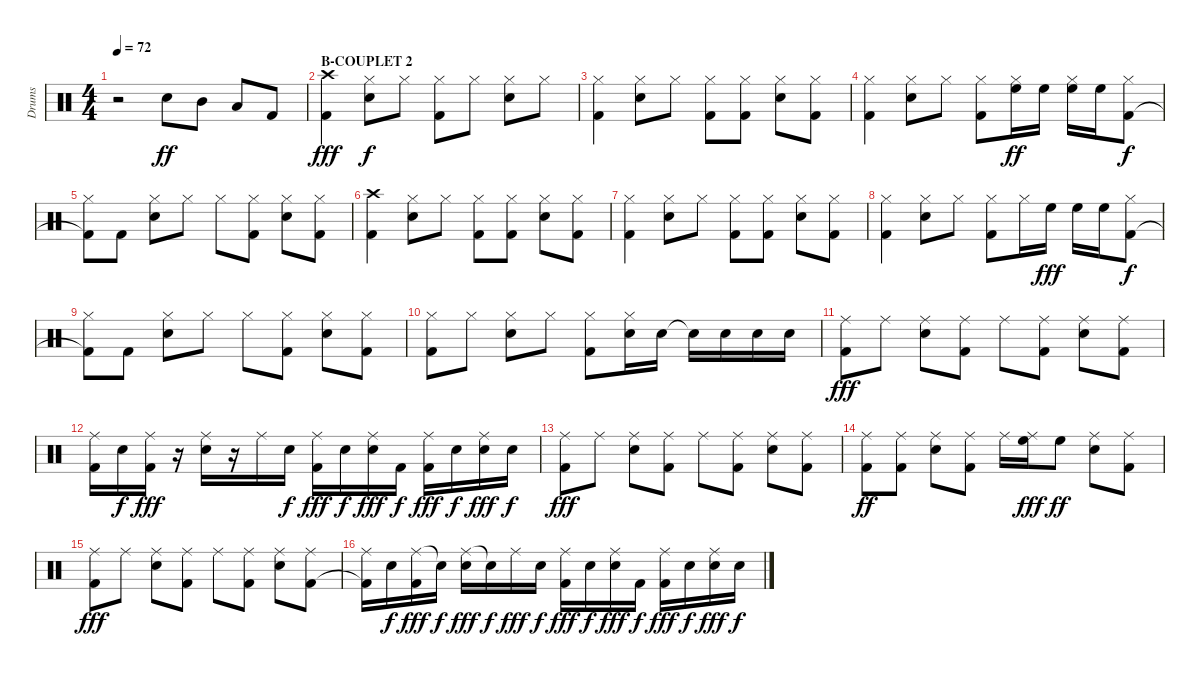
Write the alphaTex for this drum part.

\track ("Drums" "Drums") {instrument percussion}
\staff {score}
\articulation defaults
\ts (4 4)
\tempo 72
\clef neutral
\ks c
r.2{dy ff} "Snare (hit) 2".8 "Mid Tom (hit)".8 "Low Tom (hit)".8 "Kick (hit) 2".8 |
\section ("" "B-COUPLET 2")
("Crash high (hit)" "Kick (hit) 2").4{dy fff} ("Hi-Hat (closed)" "Snare (hit) 2").8{dy f} "Hi-Hat (closed)".8 ("Hi-Hat (closed)" "Kick (hit) 2").8 "Hi-Hat (closed)".8 ("Hi-Hat (closed)" "Snare (hit) 2").8 "Hi-Hat (closed)".8 |
("Hi-Hat (closed)" "Kick (hit) 2").4 ("Hi-Hat (closed)" "Snare (hit) 2").8 "Hi-Hat (closed)".8 ("Hi-Hat (closed)" "Kick (hit) 2").8 ("Hi-Hat (closed)" "Kick (hit) 2").8 ("Hi-Hat (closed)" "Snare (hit) 2").8 ("Hi-Hat (closed)" "Kick (hit) 2").8 |
("Hi-Hat (closed)" "Kick (hit) 2").4 ("Hi-Hat (closed)" "Snare (hit) 2").8 "Hi-Hat (closed)".8 ("Hi-Hat (closed)" "Kick (hit) 2").8 ("Hi-Hat (closed)" "High Floor Tom (hit)").16{dy ff} "High Floor Tom (hit)".16 ("Hi-Hat (closed)" "High Floor Tom (hit)").16 "High Floor Tom (hit)".16 ("Hi-Hat (closed)" "Kick (hit) 2").8{dy f} |
("Hi-Hat (closed)" "Kick (hit) 2"{t}).8 "Kick (hit) 2".8 ("Hi-Hat (closed)" "Snare (hit) 2").8 "Hi-Hat (closed)".8 "Hi-Hat (closed)".8 ("Hi-Hat (closed)" "Kick (hit) 2").8 ("Hi-Hat (closed)" "Snare (hit) 2").8 ("Hi-Hat (closed)" "Kick (hit) 2").8 |
("Crash high (hit)" "Kick (hit) 2").4 ("Hi-Hat (closed)" "Snare (hit) 2").8 "Hi-Hat (closed)".8 ("Hi-Hat (closed)" "Kick (hit) 2").8 ("Hi-Hat (closed)" "Kick (hit) 2").8 ("Hi-Hat (closed)" "Snare (hit) 2").8 ("Hi-Hat (closed)" "Kick (hit) 2").8 |
("Hi-Hat (closed)" "Kick (hit) 2").4 ("Hi-Hat (closed)" "Snare (hit) 2").8 "Hi-Hat (closed)".8 ("Hi-Hat (closed)" "Kick (hit) 2").8 ("Hi-Hat (closed)" "Kick (hit) 2").8 ("Hi-Hat (closed)" "Snare (hit) 2").8 ("Hi-Hat (closed)" "Kick (hit) 2").8 |
("Hi-Hat (closed)" "Kick (hit) 2").4 ("Hi-Hat (closed)" "Snare (hit) 2").8 "Hi-Hat (closed)".8 ("Hi-Hat (closed)" "Kick (hit) 2").8 "Hi-Hat (closed)".16 "High Floor Tom (hit)".16{dy fff} "High Floor Tom (hit)".16 "High Floor Tom (hit)".16 ("Hi-Hat (closed)" "Kick (hit) 2").8{dy f} |
("Hi-Hat (closed)" "Kick (hit) 2"{t}).8 "Kick (hit) 2".8 ("Hi-Hat (closed)" "Snare (hit) 2").8 "Hi-Hat (closed)".8 "Hi-Hat (closed)".8 ("Hi-Hat (closed)" "Kick (hit) 2").8 ("Hi-Hat (closed)" "Snare (hit) 2").8 ("Hi-Hat (closed)" "Kick (hit) 2").8 |
("Hi-Hat (closed)" "Kick (hit) 2").8 "Hi-Hat (closed)".8 ("Hi-Hat (closed)" "Snare (hit) 2").8 "Hi-Hat (closed)".8 ("Hi-Hat (closed)" "Kick (hit) 2").8 ("Hi-Hat (closed)" "Snare (hit) 2").16 "Snare (hit) 2".16 "Snare (hit) 2"{t}.16 "Snare (hit) 2".16 "Snare (hit) 2".16 "Snare (hit) 2".16 |
("Ride (middle)" "Kick (hit) 2").8{dy fff} "Ride (middle)".8 ("Ride (middle)" "Snare (hit) 2").8 ("Ride (middle)" "Kick (hit) 2").8 "Ride (middle)".8 ("Ride (middle)" "Kick (hit) 2").8 ("Ride (middle)" "Snare (hit) 2").8 ("Ride (middle)" "Kick (hit) 2").8 |
("Ride (middle)" "Kick (hit) 2").16 "Snare (hit) 2".16{dy f} ("Ride (middle)" "Kick (hit) 2").16{dy fff} r.16 ("Ride (middle)" "Snare (hit) 2").16 r.16 "Ride (middle)".16 "Snare (hit) 2".16{dy f} ("Ride (middle)" "Kick (hit) 2").16{dy fff} "Snare (hit) 2".16{dy f} ("Ride (middle)" "Snare (hit) 2").16{dy fff} "Kick (hit) 2".16{dy f} ("Ride (middle)" "Kick (hit) 2").16{dy fff} "Snare (hit) 2".16{dy f} ("Ride (middle)" "Snare (hit) 2").16{dy fff} "Snare (hit) 2".16{dy f} |
("Ride (middle)" "Kick (hit) 2").8{dy fff} "Ride (middle)".8 ("Ride (middle)" "Snare (hit) 2").8 ("Ride (middle)" "Kick (hit) 2").8 "Ride (middle)".8 ("Ride (middle)" "Kick (hit) 2").8 ("Ride (middle)" "Snare (hit) 2").8 ("Ride (middle)" "Kick (hit) 2").8 |
("Ride (middle)" "Kick (hit) 2").8{dy ff} ("Ride (middle)" "Kick (hit) 2").8 ("Ride (middle)" "Snare (hit) 2").8 ("Ride (middle)" "Kick (hit) 2").8 "Ride (middle)".16 ("Ride (middle)" "High Floor Tom (hit)").16{dy fff} "High Floor Tom (hit)".8{dy ff} ("Ride (middle)" "Snare (hit) 2").8 ("Ride (middle)" "Kick (hit) 2").8 |
("Ride (middle)" "Kick (hit) 2").8{dy fff} "Ride (middle)".8 ("Ride (middle)" "Snare (hit) 2").8 ("Ride (middle)" "Kick (hit) 2").8 "Ride (middle)".8 ("Ride (middle)" "Kick (hit) 2").8 ("Ride (middle)" "Snare (hit) 2").8 ("Ride (middle)" "Kick (hit) 2").8 |
("Ride (middle)" "Kick (hit) 2"{t}).16 "Snare (hit) 2".16{dy f} ("Ride (middle)" "Kick (hit) 2").16{dy fff} "Snare (hit)"{t}.16{dy f} ("Ride (middle)" "Snare (hit) 2").16{dy fff} "Snare (hit)"{t}.16{dy f} "Ride (middle)".16{dy fff} "Snare (hit) 2".16{dy f} ("Ride (middle)" "Kick (hit) 2").16{dy fff} "Snare (hit) 2".16{dy f} ("Ride (middle)" "Snare (hit) 2").16{dy fff} "Kick (hit) 2".16{dy f} ("Ride (middle)" "Kick (hit) 2").16{dy fff} "Snare (hit) 2".16{dy f} ("Ride (middle)" "Snare (hit) 2").16{dy fff} "Snare (hit) 2".16{dy f}
